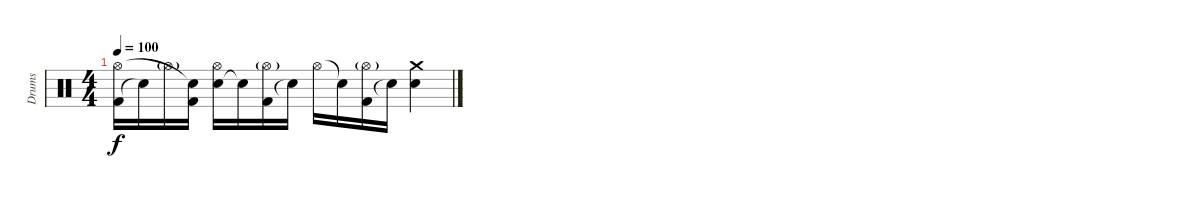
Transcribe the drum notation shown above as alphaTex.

\track ("Drums" "Drums") {instrument percussion}
\staff {score}
\articulation defaults
\ts (4 4)
\tempo 100
\clef neutral
\ks c
("Kick (hit) 2" "Hi-Hat (open)").16{dy f} "Snare (hit)"{t}.16 "Hi-Hat (open)"{g}.16 ("Kick (hit) 2" "Snare (hit)"{t}).16 ("Snare (hit) 2" "Hi-Hat (open)").16 "Snare (hit)"{t}.16 ("Kick (hit) 2" "Hi-Hat (open)"{g}).16 "Snare (hit)"{t}.16 "Hi-Hat (open)".16 "Snare (hit)"{t}.16 ("Kick (hit) 2" "Hi-Hat (open)"{g}).16 "Snare (hit)"{t}.16 ("Snare (hit) 2" "Crash medium (hit)").4
